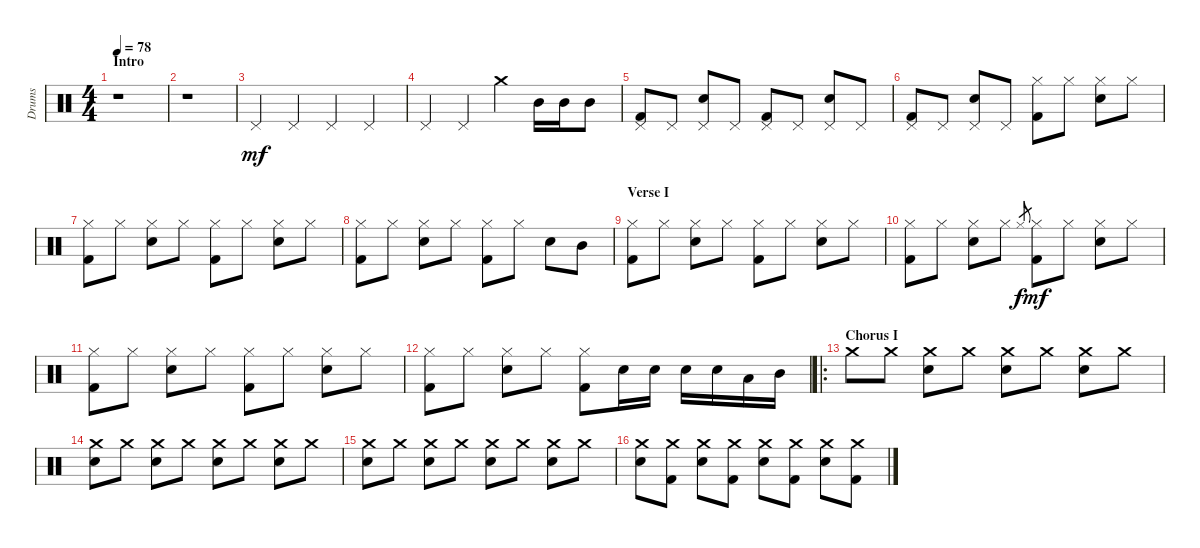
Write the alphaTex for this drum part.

\track ("Drums" "Drums") {instrument percussion}
\staff {score}
\articulation defaults
\ts (4 4)
\section ("" "Intro")
\tempo 78
\clef neutral
\ks c
r.1{dy mf} |
r.1 |
"Pedal Hi-Hat (hit)".4 "Pedal Hi-Hat (hit)".4 "Pedal Hi-Hat (hit)".4 "Pedal Hi-Hat (hit)".4 |
"Pedal Hi-Hat (hit)".4 "Pedal Hi-Hat (hit)".4 "Crash medium (hit)".4 "Mid Tom (hit)".16 "Mid Tom (hit)".16 "Mid Tom (hit)".8 |
("Pedal Hi-Hat (hit)" "Kick (hit) 2").8 "Pedal Hi-Hat (hit)".8 ("Electric Snare (hit)" "Pedal Hi-Hat (hit)").8 "Pedal Hi-Hat (hit)".8 ("Pedal Hi-Hat (hit)" "Kick (hit) 2").8 "Pedal Hi-Hat (hit)".8 ("Electric Snare (hit)" "Pedal Hi-Hat (hit)").8 "Pedal Hi-Hat (hit)".8 |
("Pedal Hi-Hat (hit)" "Kick (hit) 2").8 "Pedal Hi-Hat (hit)".8 ("Electric Snare (hit)" "Pedal Hi-Hat (hit)").8 "Pedal Hi-Hat (hit)".8 ("Hi-Hat (closed)" "Kick (hit) 2").8 "Hi-Hat (closed)".8 ("Hi-Hat (closed)" "Electric Snare (hit)").8 "Hi-Hat (closed)".8 |
("Hi-Hat (closed)" "Kick (hit) 2").8 "Hi-Hat (closed)".8 ("Hi-Hat (closed)" "Electric Snare (hit)").8 "Hi-Hat (closed)".8 ("Hi-Hat (closed)" "Kick (hit) 2").8 "Hi-Hat (closed)".8 ("Hi-Hat (closed)" "Electric Snare (hit)").8 "Hi-Hat (closed)".8 |
("Hi-Hat (closed)" "Kick (hit) 2").8 "Hi-Hat (closed)".8 ("Hi-Hat (closed)" "Electric Snare (hit)").8 "Hi-Hat (closed)".8 ("Hi-Hat (closed)" "Kick (hit) 2").8 "Hi-Hat (closed)".8 "Electric Snare (hit)".8 "Mid Tom (hit)".8 |
\section ("" "Verse I")
("Hi-Hat (closed)" "Kick (hit) 2").8 "Hi-Hat (closed)".8 ("Hi-Hat (closed)" "Electric Snare (hit)").8 "Hi-Hat (closed)".8 ("Hi-Hat (closed)" "Kick (hit) 2").8 "Hi-Hat (closed)".8 ("Hi-Hat (closed)" "Electric Snare (hit)").8 "Hi-Hat (closed)".8 |
("Hi-Hat (closed)" "Kick (hit) 2").8 "Hi-Hat (closed)".8 ("Hi-Hat (closed)" "Electric Snare (hit)").8 "Hi-Hat (closed)".8 "Hi-Hat (closed)".8{gr dy f} ("Hi-Hat (closed)" "Kick (hit) 2").8{dy mf} "Hi-Hat (closed)".8 ("Hi-Hat (closed)" "Electric Snare (hit)").8 "Hi-Hat (closed)".8 |
("Hi-Hat (closed)" "Kick (hit) 2").8 "Hi-Hat (closed)".8 ("Hi-Hat (closed)" "Electric Snare (hit)").8 "Hi-Hat (closed)".8 ("Hi-Hat (closed)" "Kick (hit) 2").8 "Hi-Hat (closed)".8 ("Hi-Hat (closed)" "Electric Snare (hit)").8 "Hi-Hat (closed)".8 |
("Hi-Hat (closed)" "Kick (hit) 2").8 "Hi-Hat (closed)".8 ("Hi-Hat (closed)" "Electric Snare (hit)").8 "Hi-Hat (closed)".8 ("Hi-Hat (closed)" "Kick (hit) 2").8 "Electric Snare (hit)".16 "Electric Snare (hit)".16 "Electric Snare (hit)".16 "Electric Snare (hit)".16 "Low Tom (hit)".16 "Mid Tom (hit)".16 |
\ro
\section ("" "Chorus I")
"Crash medium (hit)".8 "Crash medium (hit)".8 ("Crash medium (hit)" "Electric Snare (hit)").8 "Crash medium (hit)".8 ("Crash medium (hit)" "Electric Snare (hit)").8 "Crash medium (hit)".8 ("Crash medium (hit)" "Electric Snare (hit)").8 "Crash medium (hit)".8 |
("Crash medium (hit)" "Electric Snare (hit)").8 "Crash medium (hit)".8 ("Crash medium (hit)" "Electric Snare (hit)").8 "Crash medium (hit)".8 ("Crash medium (hit)" "Electric Snare (hit)").8 "Crash medium (hit)".8 ("Crash medium (hit)" "Electric Snare (hit)").8 "Crash medium (hit)".8 |
("Crash medium (hit)" "Electric Snare (hit)").8 "Crash medium (hit)".8 ("Crash medium (hit)" "Electric Snare (hit)").8 "Crash medium (hit)".8 ("Crash medium (hit)" "Electric Snare (hit)").8 "Crash medium (hit)".8 ("Crash medium (hit)" "Electric Snare (hit)").8 "Crash medium (hit)".8 |
("Crash medium (hit)" "Electric Snare (hit)").8 ("Crash medium (hit)" "Kick (hit) 2").8 ("Crash medium (hit)" "Electric Snare (hit)").8 ("Crash medium (hit)" "Kick (hit) 2").8 ("Crash medium (hit)" "Electric Snare (hit)").8 ("Crash medium (hit)" "Kick (hit) 2").8 ("Crash medium (hit)" "Electric Snare (hit)").8 ("Crash medium (hit)" "Kick (hit) 2").8
